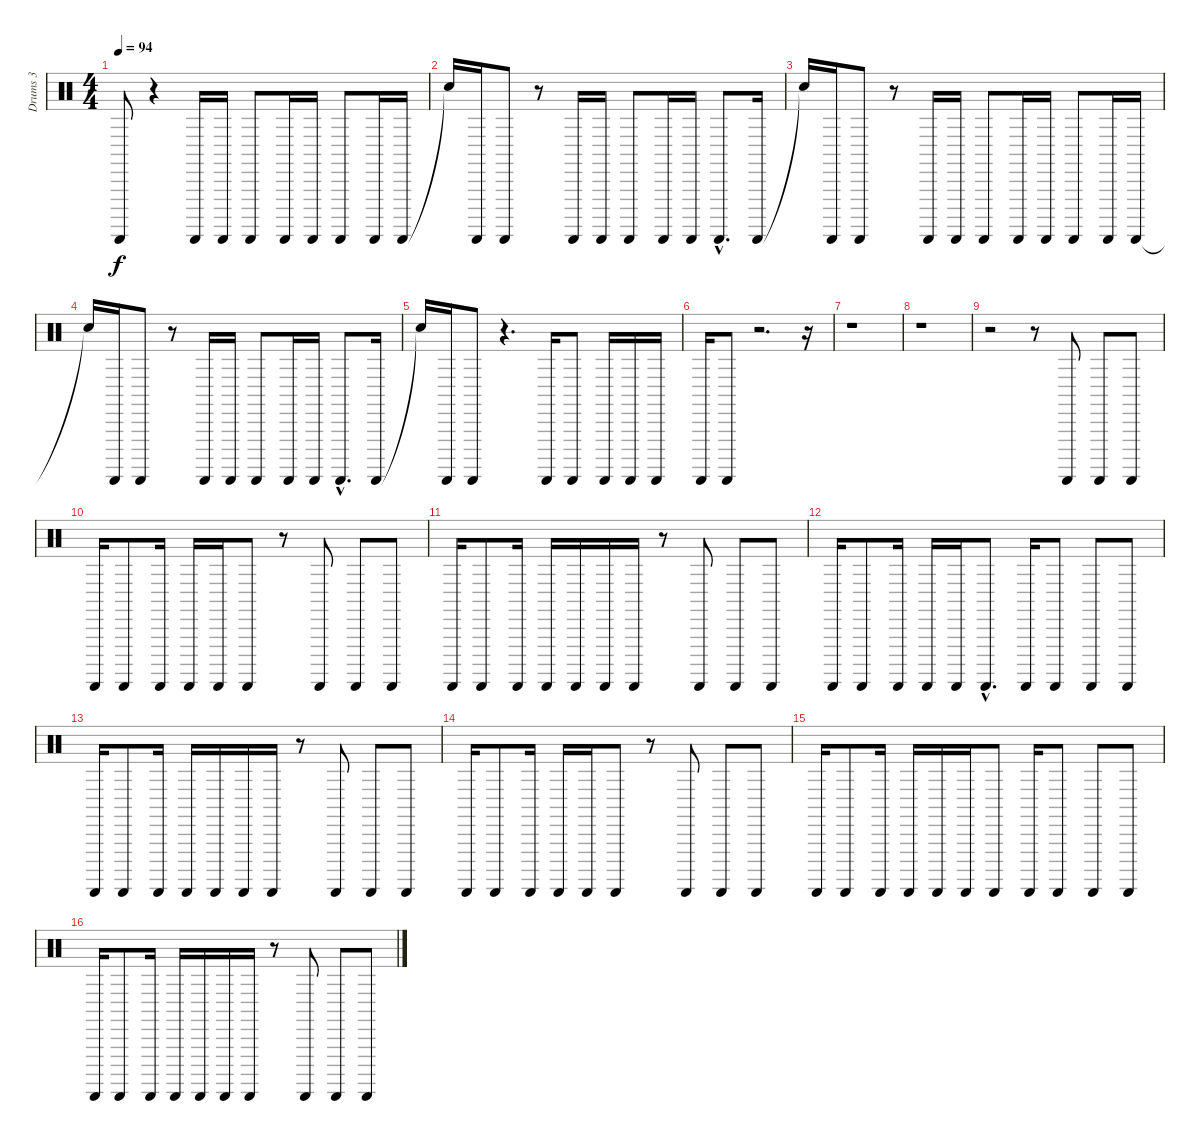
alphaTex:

\track ("Drums 3" "Drums 3") {instrument percussion}
\staff {score}
\articulation defaults
\ts (4 4)
\tempo 94
\clef neutral
\ks c "Guiro (scrap-return)".8{dy f}
r.4 "Guiro (scrap-return)".16 "Guiro (scrap-return)".16 "Guiro (scrap-return)".8 "Guiro (scrap-return)".16 "Guiro (scrap-return)".16 "Guiro (scrap-return)".8 "Guiro (scrap-return)".16 "Guiro (scrap-return)".16 |
"Snare (hit)"{t}.16 "Guiro (scrap-return)".16 "Guiro (scrap-return)".8 r.8 "Guiro (scrap-return)".16 "Guiro (scrap-return)".16 "Guiro (scrap-return)".8 "Guiro (scrap-return)".16 "Guiro (scrap-return)".16 "Guiro (scrap-return)"{hac}.8{d} "Guiro (scrap-return)".16 |
"Snare (hit)"{t}.16 "Guiro (scrap-return)".16 "Guiro (scrap-return)".8 r.8 "Guiro (scrap-return)".16 "Guiro (scrap-return)".16 "Guiro (scrap-return)".8 "Guiro (scrap-return)".16 "Guiro (scrap-return)".16 "Guiro (scrap-return)".8 "Guiro (scrap-return)".16 "Guiro (scrap-return)".16 |
"Snare (hit)"{t}.16 "Guiro (scrap-return)".16 "Guiro (scrap-return)".8 r.8 "Guiro (scrap-return)".16 "Guiro (scrap-return)".16 "Guiro (scrap-return)".8 "Guiro (scrap-return)".16 "Guiro (scrap-return)".16 "Guiro (scrap-return)"{hac}.8{d} "Guiro (scrap-return)".16 |
"Snare (hit)"{t}.16 "Guiro (scrap-return)".16 "Guiro (scrap-return)".8 r.4{d} "Guiro (scrap-return)".16 "Guiro (scrap-return)".8 "Guiro (scrap-return)".16 "Guiro (scrap-return)".16 "Guiro (scrap-return)".16 |
"Guiro (scrap-return)".16 "Guiro (scrap-return)".8 r.2{d} r.16 |
r.1 |
r.1 |
r.2 r.8 "Guiro (scrap-return)".8 "Guiro (scrap-return)".8 "Guiro (scrap-return)".8 |
"Guiro (scrap-return)".16 "Guiro (scrap-return)".8 "Guiro (scrap-return)".16 "Guiro (scrap-return)".16 "Guiro (scrap-return)".16 "Guiro (scrap-return)".8 r.8 "Guiro (scrap-return)".8 "Guiro (scrap-return)".8 "Guiro (scrap-return)".8 |
"Guiro (scrap-return)".16 "Guiro (scrap-return)".8 "Guiro (scrap-return)".16 "Guiro (scrap-return)".16 "Guiro (scrap-return)".16 "Guiro (scrap-return)".16 "Guiro (scrap-return)".16 r.8 "Guiro (scrap-return)".8 "Guiro (scrap-return)".8 "Guiro (scrap-return)".8 |
"Guiro (scrap-return)".16 "Guiro (scrap-return)".8 "Guiro (scrap-return)".16 "Guiro (scrap-return)".16 "Guiro (scrap-return)".16 "Guiro (scrap-return)"{hac}.8{d} "Guiro (scrap-return)".16 "Guiro (scrap-return)".8 "Guiro (scrap-return)".8 "Guiro (scrap-return)".8 |
"Guiro (scrap-return)".16 "Guiro (scrap-return)".8 "Guiro (scrap-return)".16 "Guiro (scrap-return)".16 "Guiro (scrap-return)".16 "Guiro (scrap-return)".16 "Guiro (scrap-return)".16 r.8 "Guiro (scrap-return)".8 "Guiro (scrap-return)".8 "Guiro (scrap-return)".8 |
"Guiro (scrap-return)".16 "Guiro (scrap-return)".8 "Guiro (scrap-return)".16 "Guiro (scrap-return)".16 "Guiro (scrap-return)".16 "Guiro (scrap-return)".8 r.8 "Guiro (scrap-return)".8 "Guiro (scrap-return)".8 "Guiro (scrap-return)".8 |
"Guiro (scrap-return)".16 "Guiro (scrap-return)".8 "Guiro (scrap-return)".16 "Guiro (scrap-return)".16 "Guiro (scrap-return)".16 "Guiro (scrap-return)".16 "Guiro (scrap-return)".8 "Guiro (scrap-return)".16 "Guiro (scrap-return)".8 "Guiro (scrap-return)".8 "Guiro (scrap-return)".8 |
"Guiro (scrap-return)".16 "Guiro (scrap-return)".8 "Guiro (scrap-return)".16 "Guiro (scrap-return)".16 "Guiro (scrap-return)".16 "Guiro (scrap-return)".16 "Guiro (scrap-return)".16 r.8 "Guiro (scrap-return)".8 "Guiro (scrap-return)".8 "Guiro (scrap-return)".8
